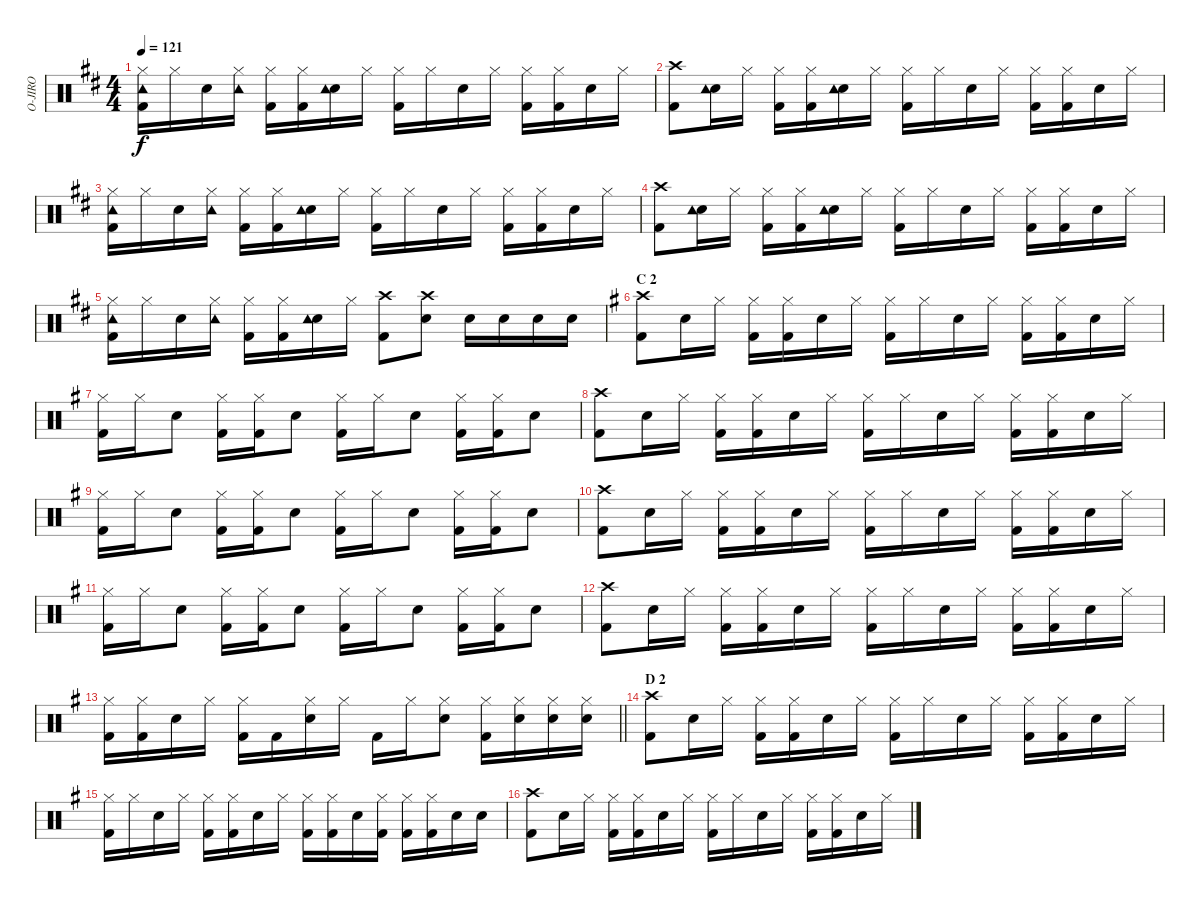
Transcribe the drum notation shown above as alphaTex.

\track ("O-JIRO" "O-JIRO") {instrument percussion}
\staff {score}
\articulation defaults
\ts (4 4)
\tempo 121
\clef neutral
\ks d
("Hi-Hat (closed)" "Kick (hit) 2" "Tambourine (hit)").16{dy f} "Hi-Hat (closed)".16 "Snare (hit) 2".16 ("Hi-Hat (closed)" "Tambourine (hit)").16 ("Hi-Hat (closed)" "Kick (hit) 2").16 ("Hi-Hat (closed)" "Kick (hit) 2").16 ("Snare (hit) 2" "Tambourine (hit)").16 "Hi-Hat (closed)".16 ("Hi-Hat (closed)" "Kick (hit) 2").16 "Hi-Hat (closed)".16 "Snare (hit) 2".16 "Hi-Hat (closed)".16 ("Hi-Hat (closed)" "Kick (hit) 2").16 ("Hi-Hat (closed)" "Kick (hit) 2").16 "Snare (hit) 2".16 "Hi-Hat (closed)".16 |
("Crash high (hit)" "Kick (hit) 2").8 ("Snare (hit) 2" "Tambourine (hit)").16 "Hi-Hat (closed)".16 ("Hi-Hat (closed)" "Kick (hit) 2").16 ("Hi-Hat (closed)" "Kick (hit) 2").16 ("Snare (hit) 2" "Tambourine (hit)").16 "Hi-Hat (closed)".16 ("Hi-Hat (closed)" "Kick (hit) 2").16 "Hi-Hat (closed)".16 "Snare (hit) 2".16 "Hi-Hat (closed)".16 ("Hi-Hat (closed)" "Kick (hit) 2").16 ("Hi-Hat (closed)" "Kick (hit) 2").16 "Snare (hit) 2".16 "Hi-Hat (closed)".16 |
("Hi-Hat (closed)" "Kick (hit) 2" "Tambourine (hit)").16 "Hi-Hat (closed)".16 "Snare (hit) 2".16 ("Hi-Hat (closed)" "Tambourine (hit)").16 ("Hi-Hat (closed)" "Kick (hit) 2").16 ("Hi-Hat (closed)" "Kick (hit) 2").16 ("Snare (hit) 2" "Tambourine (hit)").16 "Hi-Hat (closed)".16 ("Hi-Hat (closed)" "Kick (hit) 2").16 "Hi-Hat (closed)".16 "Snare (hit) 2".16 "Hi-Hat (closed)".16 ("Hi-Hat (closed)" "Kick (hit) 2").16 ("Hi-Hat (closed)" "Kick (hit) 2").16 "Snare (hit) 2".16 "Hi-Hat (closed)".16 |
("Crash high (hit)" "Kick (hit) 2").8 ("Snare (hit) 2" "Tambourine (hit)").16 "Hi-Hat (closed)".16 ("Hi-Hat (closed)" "Kick (hit) 2").16 ("Hi-Hat (closed)" "Kick (hit) 2").16 ("Snare (hit) 2" "Tambourine (hit)").16 "Hi-Hat (closed)".16 ("Hi-Hat (closed)" "Kick (hit) 2").16 "Hi-Hat (closed)".16 "Snare (hit) 2".16 "Hi-Hat (closed)".16 ("Hi-Hat (closed)" "Kick (hit) 2").16 ("Hi-Hat (closed)" "Kick (hit) 2").16 "Snare (hit) 2".16 "Hi-Hat (closed)".16 |
("Hi-Hat (closed)" "Kick (hit) 2" "Tambourine (hit)").16 "Hi-Hat (closed)".16 "Snare (hit) 2".16 ("Hi-Hat (closed)" "Tambourine (hit)").16 ("Hi-Hat (closed)" "Kick (hit) 2").16 ("Hi-Hat (closed)" "Kick (hit) 2").16 ("Snare (hit) 2" "Tambourine (hit)").16 "Hi-Hat (closed)".16 ("Crash high (hit)" "Kick (hit) 2").8 ("Crash high (hit)" "Snare (hit) 2").8 "Snare (hit) 2".16 "Snare (hit) 2".16 "Snare (hit) 2".16 "Snare (hit) 2".16 |
\section ("" "C 2")
\ks g
("Crash high (hit)" "Kick (hit) 2").8 "Snare (hit) 2".16 "Hi-Hat (closed)".16 ("Hi-Hat (closed)" "Kick (hit) 2").16 ("Hi-Hat (closed)" "Kick (hit) 2").16 "Snare (hit) 2".16 "Hi-Hat (closed)".16 ("Hi-Hat (closed)" "Kick (hit) 2").16 "Hi-Hat (closed)".16 "Snare (hit) 2".16 "Hi-Hat (closed)".16 ("Hi-Hat (closed)" "Kick (hit) 2").16 ("Hi-Hat (closed)" "Kick (hit) 2").16 "Snare (hit) 2".16 "Hi-Hat (closed)".16 |
("Hi-Hat (closed)" "Kick (hit) 2").16 "Hi-Hat (closed)".16 "Snare (hit) 2".8 ("Hi-Hat (closed)" "Kick (hit) 2").16 ("Hi-Hat (closed)" "Kick (hit) 2").16 "Snare (hit) 2".8 ("Hi-Hat (closed)" "Kick (hit) 2").16 "Hi-Hat (closed)".16 "Snare (hit) 2".8 ("Hi-Hat (closed)" "Kick (hit) 2").16 ("Hi-Hat (closed)" "Kick (hit) 2").16 "Snare (hit) 2".8 |
("Crash high (hit)" "Kick (hit) 2").8 "Snare (hit) 2".16 "Hi-Hat (closed)".16 ("Hi-Hat (closed)" "Kick (hit) 2").16 ("Hi-Hat (closed)" "Kick (hit) 2").16 "Snare (hit) 2".16 "Hi-Hat (closed)".16 ("Hi-Hat (closed)" "Kick (hit) 2").16 "Hi-Hat (closed)".16 "Snare (hit) 2".16 "Hi-Hat (closed)".16 ("Hi-Hat (closed)" "Kick (hit) 2").16 ("Hi-Hat (closed)" "Kick (hit) 2").16 "Snare (hit) 2".16 "Hi-Hat (closed)".16 |
("Hi-Hat (closed)" "Kick (hit) 2").16 "Hi-Hat (closed)".16 "Snare (hit) 2".8 ("Hi-Hat (closed)" "Kick (hit) 2").16 ("Hi-Hat (closed)" "Kick (hit) 2").16 "Snare (hit) 2".8 ("Hi-Hat (closed)" "Kick (hit) 2").16 "Hi-Hat (closed)".16 "Snare (hit) 2".8 ("Hi-Hat (closed)" "Kick (hit) 2").16 ("Hi-Hat (closed)" "Kick (hit) 2").16 "Snare (hit) 2".8 |
("Crash high (hit)" "Kick (hit) 2").8 "Snare (hit) 2".16 "Hi-Hat (closed)".16 ("Hi-Hat (closed)" "Kick (hit) 2").16 ("Hi-Hat (closed)" "Kick (hit) 2").16 "Snare (hit) 2".16 "Hi-Hat (closed)".16 ("Hi-Hat (closed)" "Kick (hit) 2").16 "Hi-Hat (closed)".16 "Snare (hit) 2".16 "Hi-Hat (closed)".16 ("Hi-Hat (closed)" "Kick (hit) 2").16 ("Hi-Hat (closed)" "Kick (hit) 2").16 "Snare (hit) 2".16 "Hi-Hat (closed)".16 |
("Hi-Hat (closed)" "Kick (hit) 2").16 "Hi-Hat (closed)".16 "Snare (hit) 2".8 ("Hi-Hat (closed)" "Kick (hit) 2").16 ("Hi-Hat (closed)" "Kick (hit) 2").16 "Snare (hit) 2".8 ("Hi-Hat (closed)" "Kick (hit) 2").16 "Hi-Hat (closed)".16 "Snare (hit) 2".8 ("Hi-Hat (closed)" "Kick (hit) 2").16 ("Hi-Hat (closed)" "Kick (hit) 2").16 "Snare (hit) 2".8 |
("Crash high (hit)" "Kick (hit) 2").8 "Snare (hit) 2".16 "Hi-Hat (closed)".16 ("Hi-Hat (closed)" "Kick (hit) 2").16 ("Hi-Hat (closed)" "Kick (hit) 2").16 "Snare (hit) 2".16 "Hi-Hat (closed)".16 ("Hi-Hat (closed)" "Kick (hit) 2").16 "Hi-Hat (closed)".16 "Snare (hit) 2".16 "Hi-Hat (closed)".16 ("Hi-Hat (closed)" "Kick (hit) 2").16 ("Hi-Hat (closed)" "Kick (hit) 2").16 "Snare (hit) 2".16 "Hi-Hat (closed)".16 |
\barLineRight lightlight
("Hi-Hat (closed)" "Kick (hit) 2").16 ("Hi-Hat (closed)" "Kick (hit) 2").16 "Snare (hit) 2".16 "Hi-Hat (closed)".16 ("Hi-Hat (closed)" "Kick (hit) 2").16 "Kick (hit) 2".16 ("Hi-Hat (closed)" "Snare (hit) 2").16 "Hi-Hat (closed)".16 "Kick (hit) 2".16 "Hi-Hat (closed)".16 ("Hi-Hat (closed)" "Snare (hit) 2").8 ("Hi-Hat (closed)" "Kick (hit) 2").16 ("Hi-Hat (closed)" "Snare (hit) 2").16 ("Hi-Hat (closed)" "Snare (hit) 2").16 ("Hi-Hat (closed)" "Snare (hit) 2").16 |
\section ("" "D 2")
("Crash high (hit)" "Kick (hit) 2").8 "Snare (hit) 2".16 "Hi-Hat (closed)".16 ("Hi-Hat (closed)" "Kick (hit) 2").16 ("Hi-Hat (closed)" "Kick (hit) 2").16 "Snare (hit) 2".16 "Hi-Hat (closed)".16 ("Hi-Hat (closed)" "Kick (hit) 2").16 "Hi-Hat (closed)".16 "Snare (hit) 2".16 "Hi-Hat (closed)".16 ("Hi-Hat (closed)" "Kick (hit) 2").16 ("Hi-Hat (closed)" "Kick (hit) 2").16 "Snare (hit) 2".16 "Hi-Hat (closed)".16 |
("Hi-Hat (closed)" "Kick (hit) 2").16 "Hi-Hat (closed)".16 "Snare (hit) 2".16 "Hi-Hat (closed)".16 ("Hi-Hat (closed)" "Kick (hit) 2").16 ("Hi-Hat (closed)" "Kick (hit) 2").16 "Snare (hit) 2".16 "Hi-Hat (closed)".16 ("Hi-Hat (closed)" "Kick (hit) 2").16 ("Hi-Hat (closed)" "Kick (hit) 2").16 "Snare (hit) 2".16 ("Hi-Hat (closed)" "Kick (hit) 2").16 ("Hi-Hat (closed)" "Kick (hit) 2").16 ("Hi-Hat (closed)" "Kick (hit) 2").16 "Snare (hit) 2".16 "Snare (hit) 2".16 |
("Crash high (hit)" "Kick (hit) 2").8 "Snare (hit) 2".16 "Hi-Hat (closed)".16 ("Hi-Hat (closed)" "Kick (hit) 2").16 ("Hi-Hat (closed)" "Kick (hit) 2").16 "Snare (hit) 2".16 "Hi-Hat (closed)".16 ("Hi-Hat (closed)" "Kick (hit) 2").16 "Hi-Hat (closed)".16 "Snare (hit) 2".16 "Hi-Hat (closed)".16 ("Hi-Hat (closed)" "Kick (hit) 2").16 ("Hi-Hat (closed)" "Kick (hit) 2").16 "Snare (hit) 2".16 "Hi-Hat (closed)".16
